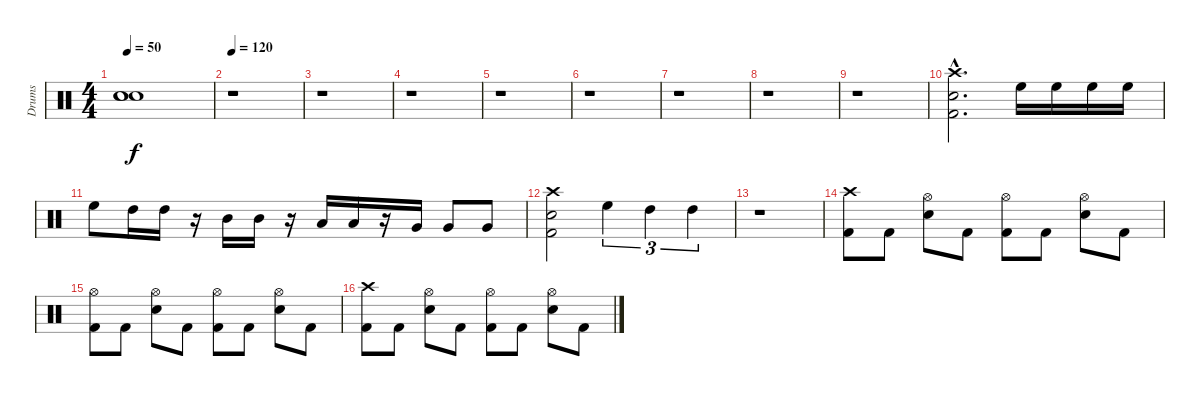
\track ("Drums" "Drums") {instrument percussion}
\staff {score}
\articulation defaults
\ts (4 4)
\tempo 50
\clef neutral
\ks c
("Snare (hit)"{t} "Snare (hit)"{t} "Snare (hit)"{t}).1{dy f} |
\tempo 120
r.1{volume 9} |
r.1 |
r.1 |
r.1 |
r.1 |
r.1 |
r.1 |
r.1 |
("Crash high (hit)"{hac} "Electric Snare (hit)"{hac} "Kick (hit) 2"{hac}).2{d} "High Floor Tom (hit)".16 "High Floor Tom (hit)".16 "High Floor Tom (hit)".16 "High Floor Tom (hit)".16 |
"High Floor Tom (hit)".8 "High Tom (hit)".16 "High Tom (hit)".16 r.16 "Mid Tom (hit)".16 "Mid Tom (hit)".16 r.16 "Low Tom (hit)".16 "Low Tom (hit)".16 r.16 "Very Low Tom (hit)".16 "Very Low Tom (hit)".8 "Very Low Tom (hit)".8 |
("Crash high (hit)" "Electric Snare (hit)" "Kick (hit) 2").2 "High Floor Tom (hit)".4{tu (3 2)} "High Tom (hit)".4{tu (3 2)} "High Tom (hit)".4{tu (3 2)} |
r.1 |
("Crash high (hit)" "Kick (hit) 2").8 "Kick (hit) 2".8 ("Hi-Hat (open)" "Electric Snare (hit)").8 "Kick (hit) 2".8 ("Hi-Hat (open)" "Kick (hit) 2").8 "Kick (hit) 2".8 ("Hi-Hat (open)" "Electric Snare (hit)").8 "Kick (hit) 2".8 |
("Hi-Hat (open)" "Kick (hit) 2").8 "Kick (hit) 2".8 ("Hi-Hat (open)" "Electric Snare (hit)").8 "Kick (hit) 2".8 ("Hi-Hat (open)" "Kick (hit) 2").8 "Kick (hit) 2".8 ("Hi-Hat (open)" "Electric Snare (hit)").8 "Kick (hit) 2".8 |
("Crash high (hit)" "Kick (hit) 2").8 "Kick (hit) 2".8 ("Hi-Hat (open)" "Electric Snare (hit)").8 "Kick (hit) 2".8 ("Hi-Hat (open)" "Kick (hit) 2").8 "Kick (hit) 2".8 ("Hi-Hat (open)" "Electric Snare (hit)").8 "Kick (hit) 2".8
